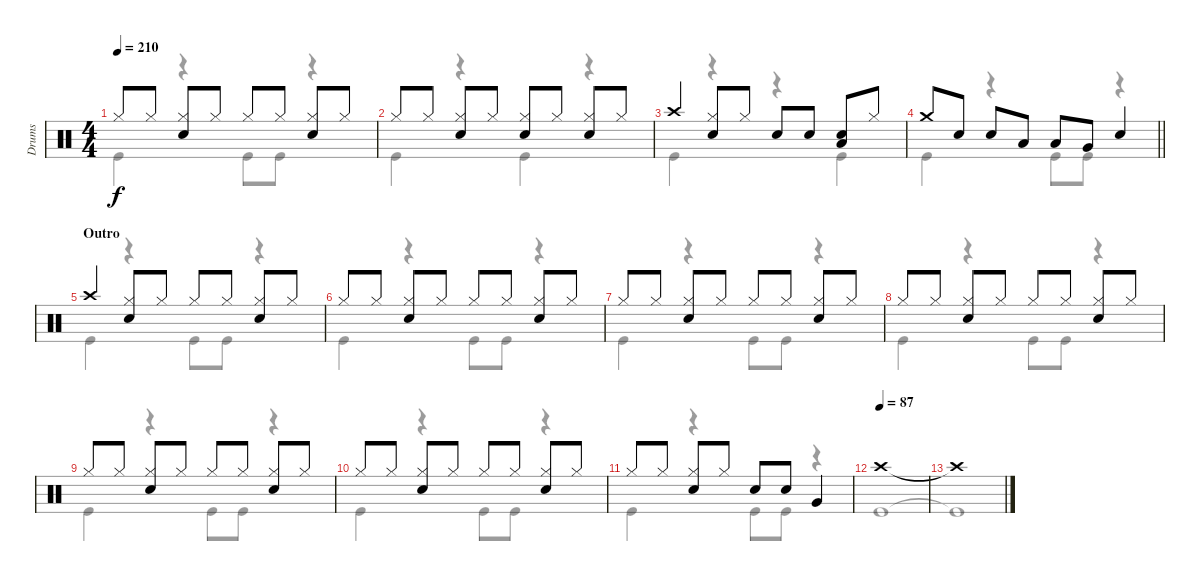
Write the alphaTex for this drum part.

\track ("Drums" "Drums") {instrument percussion}
\staff {score}
\articulation defaults
\voice
\ts (4 4)
\tempo 210
\clef neutral
\ks c "Hi-Hat (closed)".8{dy f} "Hi-Hat (closed)".8
("Hi-Hat (closed)" "Snare (hit) 2").8 "Hi-Hat (closed)".8 "Hi-Hat (closed)".8 "Hi-Hat (closed)".8 ("Hi-Hat (closed)" "Snare (hit) 2").8 "Hi-Hat (closed)".8 |
"Hi-Hat (closed)".8 "Hi-Hat (closed)".8 ("Hi-Hat (closed)" "Snare (hit) 2").8 "Hi-Hat (closed)".8 ("Hi-Hat (closed)" "Snare (hit) 2").8 "Hi-Hat (closed)".8 ("Hi-Hat (closed)" "Snare (hit) 2").8 "Hi-Hat (closed)".8 |
"Crash high (hit)".4 ("Hi-Hat (closed)" "Snare (hit) 2").8 "Hi-Hat (closed)".8 "Snare (hit) 2".8 "Snare (hit) 2".8 ("Snare (hit) 2" "Low Tom (hit)").8 "Hi-Hat (closed)".8 |
\barLineRight lightlight "Crash medium (hit)".8 "Snare (hit) 2".8 "Snare (hit) 2".8 "Low Tom (hit)".8 "Low Tom (hit)".8 "Very Low Tom (hit)".8 "Snare (hit) 2".4
|
\section ("" "Outro")
"Crash high (hit)".4 ("Hi-Hat (closed)" "Snare (hit) 2").8 "Hi-Hat (closed)".8 "Hi-Hat (closed)".8 "Hi-Hat (closed)".8 ("Hi-Hat (closed)" "Snare (hit) 2").8 "Hi-Hat (closed)".8 |
"Hi-Hat (closed)".8 "Hi-Hat (closed)".8 ("Hi-Hat (closed)" "Snare (hit) 2").8 "Hi-Hat (closed)".8 "Hi-Hat (closed)".8 "Hi-Hat (closed)".8 ("Hi-Hat (closed)" "Snare (hit) 2").8 "Hi-Hat (closed)".8 |
"Hi-Hat (closed)".8 "Hi-Hat (closed)".8 ("Hi-Hat (closed)" "Snare (hit) 2").8 "Hi-Hat (closed)".8 "Hi-Hat (closed)".8 "Hi-Hat (closed)".8 ("Hi-Hat (closed)" "Snare (hit) 2").8 "Hi-Hat (closed)".8 |
"Hi-Hat (closed)".8 "Hi-Hat (closed)".8 ("Hi-Hat (closed)" "Snare (hit) 2").8 "Hi-Hat (closed)".8 "Hi-Hat (closed)".8 "Hi-Hat (closed)".8 ("Hi-Hat (closed)" "Snare (hit) 2").8 "Hi-Hat (closed)".8 |
"Hi-Hat (closed)".8 "Hi-Hat (closed)".8 ("Hi-Hat (closed)" "Snare (hit) 2").8 "Hi-Hat (closed)".8 "Hi-Hat (closed)".8 "Hi-Hat (closed)".8 ("Hi-Hat (closed)" "Snare (hit) 2").8 "Hi-Hat (closed)".8 |
"Hi-Hat (closed)".8 "Hi-Hat (closed)".8 ("Hi-Hat (closed)" "Snare (hit) 2").8 "Hi-Hat (closed)".8 "Hi-Hat (closed)".8 "Hi-Hat (closed)".8 ("Hi-Hat (closed)" "Snare (hit) 2").8 "Hi-Hat (closed)".8 |
"Hi-Hat (closed)".8 "Hi-Hat (closed)".8 ("Hi-Hat (closed)" "Snare (hit) 2").8 "Hi-Hat (closed)".8 "Snare (hit) 2".8 "Snare (hit) 2".8 "Very Low Tom (hit)".4 |
\tempo (87)
"Crash high (hit)".1 |
"Crash high (hit)"{t}.1
\voice
\clef neutral
\ottava regular
\simile none
\ks c "Kick (hit)".4{dy f}
r.4 "Kick (hit)".8 "Kick (hit)".8 r.4 |
"Kick (hit)".4 r.4 "Kick (hit)".4 r.4 |
"Kick (hit)".4 r.4 r.4 "Kick (hit)".4 |
\barLineRight lightlight "Kick (hit)".4
r.4 "Kick (hit)".8 "Kick (hit)".8 r.4 |
"Kick (hit)".4 r.4 "Kick (hit)".8 "Kick (hit)".8 r.4 |
"Kick (hit)".4 r.4 "Kick (hit)".8 "Kick (hit)".8 r.4 |
"Kick (hit)".4 r.4 "Kick (hit)".8 "Kick (hit)".8 r.4 |
"Kick (hit)".4 r.4 "Kick (hit)".8 "Kick (hit)".8 r.4 |
"Kick (hit)".4 r.4 "Kick (hit)".8 "Kick (hit)".8 r.4 |
"Kick (hit)".4 r.4 "Kick (hit)".8 "Kick (hit)".8 r.4 |
"Kick (hit)".4 r.4 "Kick (hit)".8 "Kick (hit)".8 r.4 |
"Kick (hit)".1 |
"Kick (hit)"{t}.1
